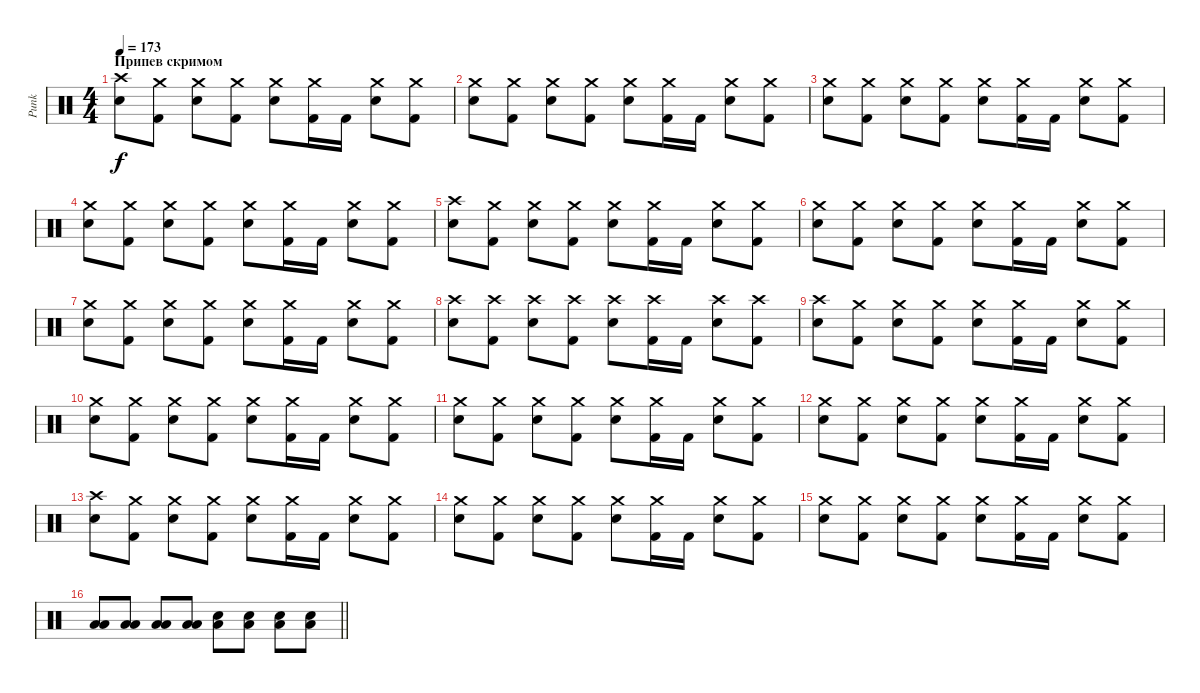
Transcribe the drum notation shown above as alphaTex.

\track ("Punk" "Punk") {instrument percussion}
\staff {score}
\articulation defaults
\ts (4 4)
\section ("" "Припев скримом")
\tempo 173
\clef neutral
\ks c
("Crash high (hit)" "Electric Snare (hit)").8{dy f} ("Crash medium (hit)" "Kick (hit) 2").8 ("Crash medium (hit)" "Electric Snare (hit)").8 ("Crash medium (hit)" "Kick (hit) 2").8 ("Crash medium (hit)" "Electric Snare (hit)").8 ("Crash medium (hit)" "Kick (hit) 2").16 "Kick (hit) 2".16 ("Crash medium (hit)" "Electric Snare (hit)").8 ("Crash medium (hit)" "Kick (hit) 2").8 |
("Crash medium (hit)" "Electric Snare (hit)").8 ("Crash medium (hit)" "Kick (hit) 2").8 ("Crash medium (hit)" "Electric Snare (hit)").8 ("Crash medium (hit)" "Kick (hit) 2").8 ("Crash medium (hit)" "Electric Snare (hit)").8 ("Crash medium (hit)" "Kick (hit) 2").16 "Kick (hit) 2".16 ("Crash medium (hit)" "Electric Snare (hit)").8 ("Crash medium (hit)" "Kick (hit) 2").8 |
("Crash medium (hit)" "Electric Snare (hit)").8 ("Crash medium (hit)" "Kick (hit) 2").8 ("Crash medium (hit)" "Electric Snare (hit)").8 ("Crash medium (hit)" "Kick (hit) 2").8 ("Crash medium (hit)" "Electric Snare (hit)").8 ("Crash medium (hit)" "Kick (hit) 2").16 "Kick (hit) 2".16 ("Crash medium (hit)" "Electric Snare (hit)").8 ("Crash medium (hit)" "Kick (hit) 2").8 |
("Crash medium (hit)" "Electric Snare (hit)").8 ("Crash medium (hit)" "Kick (hit) 2").8 ("Crash medium (hit)" "Electric Snare (hit)").8 ("Crash medium (hit)" "Kick (hit) 2").8 ("Crash medium (hit)" "Electric Snare (hit)").8 ("Crash medium (hit)" "Kick (hit) 2").16 "Kick (hit) 2".16 ("Crash medium (hit)" "Electric Snare (hit)").8 ("Crash medium (hit)" "Kick (hit) 2").8 |
("Crash high (hit)" "Electric Snare (hit)").8 ("Crash medium (hit)" "Kick (hit) 2").8 ("Crash medium (hit)" "Electric Snare (hit)").8 ("Crash medium (hit)" "Kick (hit) 2").8 ("Crash medium (hit)" "Electric Snare (hit)").8 ("Crash medium (hit)" "Kick (hit) 2").16 "Kick (hit) 2".16 ("Crash medium (hit)" "Electric Snare (hit)").8 ("Crash medium (hit)" "Kick (hit) 2").8 |
("Crash medium (hit)" "Electric Snare (hit)").8 ("Crash medium (hit)" "Kick (hit) 2").8 ("Crash medium (hit)" "Electric Snare (hit)").8 ("Crash medium (hit)" "Kick (hit) 2").8 ("Crash medium (hit)" "Electric Snare (hit)").8 ("Crash medium (hit)" "Kick (hit) 2").16 "Kick (hit) 2".16 ("Crash medium (hit)" "Electric Snare (hit)").8 ("Crash medium (hit)" "Kick (hit) 2").8 |
("Crash medium (hit)" "Electric Snare (hit)").8 ("Crash medium (hit)" "Kick (hit) 2").8 ("Crash medium (hit)" "Electric Snare (hit)").8 ("Crash medium (hit)" "Kick (hit) 2").8 ("Crash medium (hit)" "Electric Snare (hit)").8 ("Crash medium (hit)" "Kick (hit) 2").16 "Kick (hit) 2".16 ("Crash medium (hit)" "Electric Snare (hit)").8 ("Crash medium (hit)" "Kick (hit) 2").8 |
("Crash high (hit)" "Electric Snare (hit)").8 ("Crash high (hit)" "Kick (hit) 2").8 ("Crash high (hit)" "Electric Snare (hit)").8 ("Crash high (hit)" "Kick (hit) 2").8 ("Crash high (hit)" "Electric Snare (hit)").8 ("Crash high (hit)" "Kick (hit) 2").16 "Kick (hit) 2".16 ("Crash high (hit)" "Electric Snare (hit)").8 ("Crash high (hit)" "Kick (hit) 2").8 |
("Crash high (hit)" "Electric Snare (hit)").8 ("Crash medium (hit)" "Kick (hit) 2").8 ("Crash medium (hit)" "Electric Snare (hit)").8 ("Crash medium (hit)" "Kick (hit) 2").8 ("Crash medium (hit)" "Electric Snare (hit)").8 ("Crash medium (hit)" "Kick (hit) 2").16 "Kick (hit) 2".16 ("Crash medium (hit)" "Electric Snare (hit)").8 ("Crash medium (hit)" "Kick (hit) 2").8 |
("Crash medium (hit)" "Electric Snare (hit)").8 ("Crash medium (hit)" "Kick (hit) 2").8 ("Crash medium (hit)" "Electric Snare (hit)").8 ("Crash medium (hit)" "Kick (hit) 2").8 ("Crash medium (hit)" "Electric Snare (hit)").8 ("Crash medium (hit)" "Kick (hit) 2").16 "Kick (hit) 2".16 ("Crash medium (hit)" "Electric Snare (hit)").8 ("Crash medium (hit)" "Kick (hit) 2").8 |
("Crash medium (hit)" "Electric Snare (hit)").8 ("Crash medium (hit)" "Kick (hit) 2").8 ("Crash medium (hit)" "Electric Snare (hit)").8 ("Crash medium (hit)" "Kick (hit) 2").8 ("Crash medium (hit)" "Electric Snare (hit)").8 ("Crash medium (hit)" "Kick (hit) 2").16 "Kick (hit) 2".16 ("Crash medium (hit)" "Electric Snare (hit)").8 ("Crash medium (hit)" "Kick (hit) 2").8 |
("Crash medium (hit)" "Electric Snare (hit)").8 ("Crash medium (hit)" "Kick (hit) 2").8 ("Crash medium (hit)" "Electric Snare (hit)").8 ("Crash medium (hit)" "Kick (hit) 2").8 ("Crash medium (hit)" "Electric Snare (hit)").8 ("Crash medium (hit)" "Kick (hit) 2").16 "Kick (hit) 2".16 ("Crash medium (hit)" "Electric Snare (hit)").8 ("Crash medium (hit)" "Kick (hit) 2").8 |
("Crash high (hit)" "Electric Snare (hit)").8 ("Crash medium (hit)" "Kick (hit) 2").8 ("Crash medium (hit)" "Electric Snare (hit)").8 ("Crash medium (hit)" "Kick (hit) 2").8 ("Crash medium (hit)" "Electric Snare (hit)").8 ("Crash medium (hit)" "Kick (hit) 2").16 "Kick (hit) 2".16 ("Crash medium (hit)" "Electric Snare (hit)").8 ("Crash medium (hit)" "Kick (hit) 2").8 |
("Crash medium (hit)" "Electric Snare (hit)").8 ("Crash medium (hit)" "Kick (hit) 2").8 ("Crash medium (hit)" "Electric Snare (hit)").8 ("Crash medium (hit)" "Kick (hit) 2").8 ("Crash medium (hit)" "Electric Snare (hit)").8 ("Crash medium (hit)" "Kick (hit) 2").16 "Kick (hit) 2".16 ("Crash medium (hit)" "Electric Snare (hit)").8 ("Crash medium (hit)" "Kick (hit) 2").8 |
("Crash medium (hit)" "Electric Snare (hit)").8 ("Crash medium (hit)" "Kick (hit) 2").8 ("Crash medium (hit)" "Electric Snare (hit)").8 ("Crash medium (hit)" "Kick (hit) 2").8 ("Crash medium (hit)" "Electric Snare (hit)").8 ("Crash medium (hit)" "Kick (hit) 2").16 "Kick (hit) 2".16 ("Crash medium (hit)" "Electric Snare (hit)").8 ("Crash medium (hit)" "Kick (hit) 2").8 |
\barLineRight lightlight
("Low Tom (hit)" "Low Floor Tom (hit)").8 ("Low Tom (hit)" "Low Floor Tom (hit)").8 ("Low Tom (hit)" "Low Floor Tom (hit)").8 ("Low Tom (hit)" "Low Floor Tom (hit)").8 ("Electric Snare (hit)" "Low Floor Tom (hit)").8 ("Electric Snare (hit)" "Low Floor Tom (hit)").8 ("Electric Snare (hit)" "Low Floor Tom (hit)").8 ("Electric Snare (hit)" "Low Floor Tom (hit)").8
